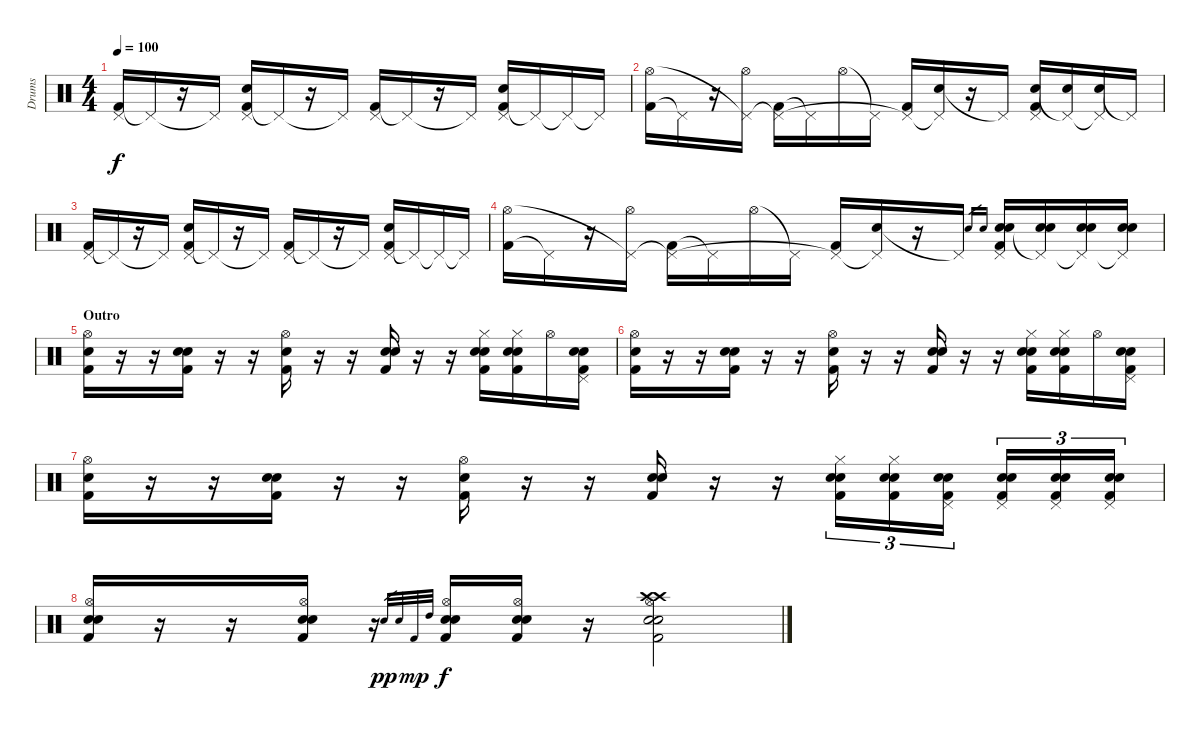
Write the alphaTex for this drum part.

\track ("Drums" "Drums") {instrument percussion}
\staff {score}
\articulation defaults
\ts (4 4)
\tempo 100
\clef neutral
\ks c
("Kick (hit) 2" "Pedal Hi-Hat (hit)").16{dy f} "Pedal Hi-Hat (hit)"{t}.16 r.16 "Pedal Hi-Hat (hit)"{t}.16 ("Kick (hit) 2" "Snare (hit) 2" "Pedal Hi-Hat (hit)").16 "Pedal Hi-Hat (hit)"{t}.16 r.16 "Pedal Hi-Hat (hit)"{t}.16 ("Kick (hit) 2" "Pedal Hi-Hat (hit)").16 "Pedal Hi-Hat (hit)"{t}.16 r.16 "Pedal Hi-Hat (hit)"{t}.16 ("Kick (hit) 2" "Snare (hit) 2" "Pedal Hi-Hat (hit)").16 "Pedal Hi-Hat (hit)"{t}.16 "Pedal Hi-Hat (hit)"{t}.16 "Pedal Hi-Hat (hit)"{t}.16 |
("Kick (hit) 2" "Hi-Hat (open)").16 "Pedal Hi-Hat (hit)"{t}.16 r.16 ("Hi-Hat (open)" "Pedal Hi-Hat (hit)"{t}).16 ("Kick (hit) 2" "Pedal Hi-Hat (hit)"{t}).16 "Pedal Hi-Hat (hit)"{t}.16 "Hi-Hat (open)".16 "Pedal Hi-Hat (hit)"{t}.16 ("Kick (hit) 2" "Pedal Hi-Hat (hit)"{t}).16 ("Snare (hit) 2" "Pedal Hi-Hat (hit)"{t}).16 r.16 "Pedal Hi-Hat (hit)"{t}.16 ("Kick (hit) 2" "Snare (hit) 2" "Pedal Hi-Hat (hit)").16 ("Snare (hit) 2" "Pedal Hi-Hat (hit)"{t}).16 ("Snare (hit) 2" "Pedal Hi-Hat (hit)"{t}).16 "Pedal Hi-Hat (hit)"{t}.16 |
("Kick (hit) 2" "Pedal Hi-Hat (hit)").16 "Pedal Hi-Hat (hit)"{t}.16 r.16 "Pedal Hi-Hat (hit)"{t}.16 ("Kick (hit) 2" "Snare (hit) 2" "Pedal Hi-Hat (hit)").16 "Pedal Hi-Hat (hit)"{t}.16 r.16 "Pedal Hi-Hat (hit)"{t}.16 ("Kick (hit) 2" "Pedal Hi-Hat (hit)").16 "Pedal Hi-Hat (hit)"{t}.16 r.16 "Pedal Hi-Hat (hit)"{t}.16 ("Kick (hit) 2" "Snare (hit) 2" "Pedal Hi-Hat (hit)").16 "Pedal Hi-Hat (hit)"{t}.16 "Pedal Hi-Hat (hit)"{t}.16 "Pedal Hi-Hat (hit)"{t}.16 |
("Kick (hit) 2" "Hi-Hat (open)").16 "Pedal Hi-Hat (hit)"{t}.16 r.16 ("Hi-Hat (open)" "Pedal Hi-Hat (hit)"{t}).16 ("Kick (hit) 2" "Pedal Hi-Hat (hit)"{t}).16 "Pedal Hi-Hat (hit)"{t}.16 "Hi-Hat (open)".16 "Pedal Hi-Hat (hit)"{t}.16 ("Kick (hit) 2" "Pedal Hi-Hat (hit)"{t}).16 ("Snare (hit) 2" "Pedal Hi-Hat (hit)"{t}).16 r.16 "Pedal Hi-Hat (hit)"{t}.16 "Snare (hit) 2"{h}.16{gr} "Electric Snare (hit)"{h}.16{gr} ("Kick (hit) 2" "Electric Snare (hit)" "Snare (hit) 2" "Pedal Hi-Hat (hit)").16 ("Electric Snare (hit)" "Snare (hit) 2" "Pedal Hi-Hat (hit)"{t}).16 ("Electric Snare (hit)" "Snare (hit) 2" "Pedal Hi-Hat (hit)"{t}).16 ("Electric Snare (hit)" "Snare (hit) 2" "Pedal Hi-Hat (hit)"{t}).16 |
\section ("" "Outro")
("Hi-Hat (open)" "Snare (hit) 2" "Kick (hit) 2").16 r.16 r.16 ("Snare (hit) 2" "Kick (hit) 2" "Electric Snare (hit)").16 r.16 r.16 ("Hi-Hat (open)" "Snare (hit) 2" "Kick (hit) 2").16 r.16 r.16 ("Snare (hit) 2" "Kick (hit) 2" "Electric Snare (hit)").16 r.16 r.16 ("Electric Snare (hit)" "Snare (hit) 2" "Hi-Hat (closed)" "Kick (hit) 2").16 ("Electric Snare (hit)" "Snare (hit) 2" "Hi-Hat (closed)" "Kick (hit) 2").16 "Hi-Hat (open)".16 ("Electric Snare (hit)" "Snare (hit) 2" "Pedal Hi-Hat (hit)" "Kick (hit) 2").16 |
("Hi-Hat (open)" "Snare (hit) 2" "Kick (hit) 2").16 r.16 r.16 ("Snare (hit) 2" "Kick (hit) 2" "Electric Snare (hit)").16 r.16 r.16 ("Hi-Hat (open)" "Snare (hit) 2" "Kick (hit) 2").16 r.16 r.16 ("Snare (hit) 2" "Kick (hit) 2" "Electric Snare (hit)").16 r.16 r.16 ("Electric Snare (hit)" "Snare (hit) 2" "Hi-Hat (closed)" "Kick (hit) 2").16 ("Electric Snare (hit)" "Snare (hit) 2" "Hi-Hat (closed)" "Kick (hit) 2").16 "Hi-Hat (open)".16 ("Electric Snare (hit)" "Snare (hit) 2" "Pedal Hi-Hat (hit)" "Kick (hit) 2").16 |
("Hi-Hat (open)" "Snare (hit) 2" "Kick (hit) 2").16 r.16 r.16 ("Snare (hit) 2" "Kick (hit) 2" "Electric Snare (hit)").16 r.16 r.16 ("Hi-Hat (open)" "Snare (hit) 2" "Kick (hit) 2").16 r.16 r.16 ("Snare (hit) 2" "Kick (hit) 2" "Electric Snare (hit)").16 r.16 r.16 ("Electric Snare (hit)" "Snare (hit) 2" "Hi-Hat (closed)" "Kick (hit) 2").16{tu (3 2)} ("Electric Snare (hit)" "Snare (hit) 2" "Hi-Hat (closed)" "Kick (hit) 2").16{tu (3 2)} ("Electric Snare (hit)" "Snare (hit) 2" "Pedal Hi-Hat (hit)" "Kick (hit) 2").16{tu (3 2)} ("Electric Snare (hit)" "Snare (hit) 2" "Pedal Hi-Hat (hit)" "Kick (hit) 2").16{tu (3 2)} ("Electric Snare (hit)" "Snare (hit) 2" "Pedal Hi-Hat (hit)" "Kick (hit) 2").16{tu (3 2)} ("Electric Snare (hit)" "Snare (hit) 2" "Pedal Hi-Hat (hit)" "Kick (hit) 2").16{tu (3 2)} |
("Electric Snare (hit)" "Snare (hit) 2" "Kick (hit) 2" "Hi-Hat (open)").16 r.16 r.16 ("Electric Snare (hit)" "Snare (hit) 2" "Kick (hit) 2" "Hi-Hat (open)").16 r.16 "Snare (hit) 2".32{gr dy pp} "Electric Snare (hit)".32{gr} "Kick (hit) 2"{sl}.32{gr dy mp} "High Tom (hit)"{sl}.32{gr} ("Electric Snare (hit)" "Snare (hit) 2" "Kick (hit) 2" "Hi-Hat (open)").16{dy f} ("Electric Snare (hit)" "Snare (hit) 2" "Kick (hit) 2" "Hi-Hat (open)").16 r.16 ("Electric Snare (hit)" "Crash high (hit)" "Crash high (hit)" "Snare (hit) 2" "Kick (hit) 2" "Hi-Hat (open)").2
